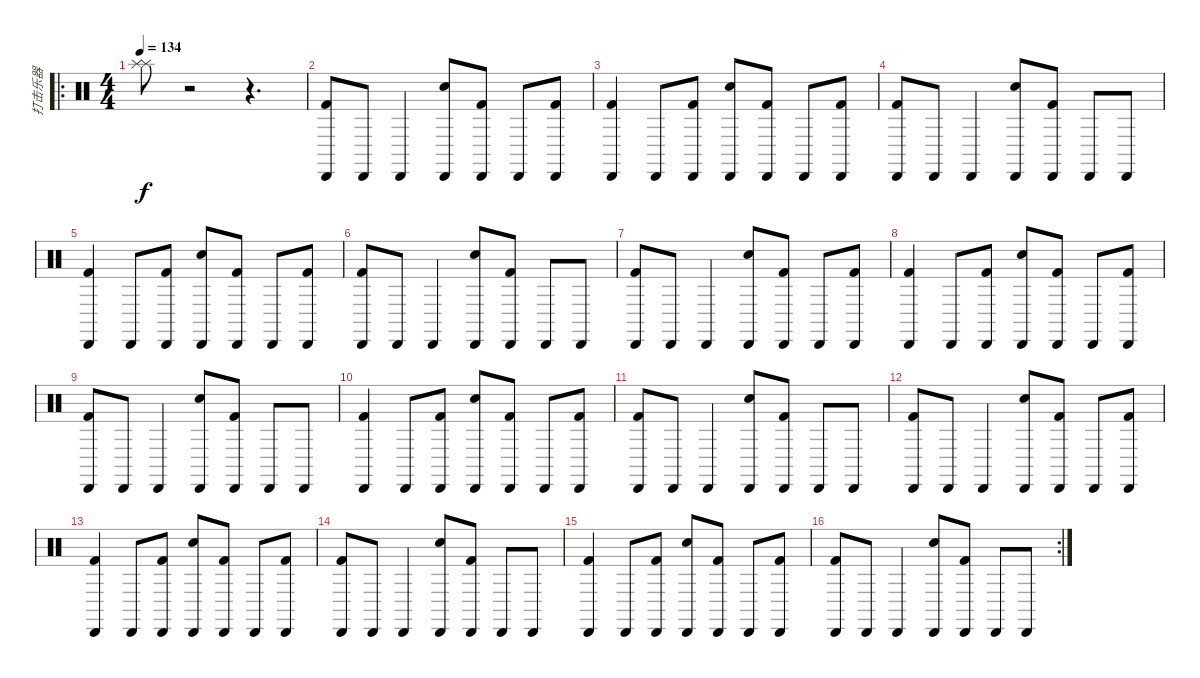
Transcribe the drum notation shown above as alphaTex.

\track ("打击乐器" "打击乐器") {instrument percussion}
\staff {score}
\articulation defaults
\ro
\ts (4 4)
\tempo 134
\clef neutral
\ks c
("Splash (hit)" "Splash (hit)").8{dy f} r.2 r.4{d} |
("Cabasa (hit)" "Kick (hit) 2").8 "Cabasa (hit)".8 "Cabasa (hit)".4 ("Snare (hit) 2" "Cabasa (hit)").8 ("Cabasa (hit)" "Kick (hit) 2").8 "Cabasa (hit)".8 ("Cabasa (hit)" "Kick (hit) 2").8 |
("Cabasa (hit)" "Kick (hit) 2").4 "Cabasa (hit)".8 ("Cabasa (hit)" "Kick (hit) 2").8 ("Snare (hit) 2" "Cabasa (hit)").8 ("Cabasa (hit)" "Kick (hit) 2").8 "Cabasa (hit)".8 ("Cabasa (hit)" "Kick (hit) 2").8 |
("Cabasa (hit)" "Kick (hit) 2").8 "Cabasa (hit)".8 "Cabasa (hit)".4 ("Snare (hit) 2" "Cabasa (hit)").8 ("Cabasa (hit)" "Kick (hit) 2").8 "Cabasa (hit)".8 "Cabasa (hit)".8 |
("Cabasa (hit)" "Kick (hit) 2").4 "Cabasa (hit)".8 ("Cabasa (hit)" "Kick (hit) 2").8 ("Snare (hit) 2" "Cabasa (hit)").8 ("Cabasa (hit)" "Kick (hit) 2").8 "Cabasa (hit)".8 ("Cabasa (hit)" "Kick (hit) 2").8 |
("Cabasa (hit)" "Kick (hit) 2").8 "Cabasa (hit)".8 "Cabasa (hit)".4 ("Snare (hit) 2" "Cabasa (hit)").8 ("Cabasa (hit)" "Kick (hit) 2").8 "Cabasa (hit)".8 "Cabasa (hit)".8 |
("Cabasa (hit)" "Kick (hit) 2").8 "Cabasa (hit)".8 "Cabasa (hit)".4 ("Snare (hit) 2" "Cabasa (hit)").8 ("Cabasa (hit)" "Kick (hit) 2").8 "Cabasa (hit)".8 ("Cabasa (hit)" "Kick (hit) 2").8 |
("Cabasa (hit)" "Kick (hit) 2").4 "Cabasa (hit)".8 ("Cabasa (hit)" "Kick (hit) 2").8 ("Snare (hit) 2" "Cabasa (hit)").8 ("Cabasa (hit)" "Kick (hit) 2").8 "Cabasa (hit)".8 ("Cabasa (hit)" "Kick (hit) 2").8 |
("Cabasa (hit)" "Kick (hit) 2").8 "Cabasa (hit)".8 "Cabasa (hit)".4 ("Snare (hit) 2" "Cabasa (hit)").8 ("Cabasa (hit)" "Kick (hit) 2").8 "Cabasa (hit)".8 "Cabasa (hit)".8 |
("Cabasa (hit)" "Kick (hit) 2").4 "Cabasa (hit)".8 ("Cabasa (hit)" "Kick (hit) 2").8 ("Snare (hit) 2" "Cabasa (hit)").8 ("Cabasa (hit)" "Kick (hit) 2").8 "Cabasa (hit)".8 ("Cabasa (hit)" "Kick (hit) 2").8 |
("Cabasa (hit)" "Kick (hit) 2").8 "Cabasa (hit)".8 "Cabasa (hit)".4 ("Snare (hit) 2" "Cabasa (hit)").8 ("Cabasa (hit)" "Kick (hit) 2").8 "Cabasa (hit)".8 "Cabasa (hit)".8 |
("Cabasa (hit)" "Kick (hit) 2").8 "Cabasa (hit)".8 "Cabasa (hit)".4 ("Snare (hit) 2" "Cabasa (hit)").8 ("Cabasa (hit)" "Kick (hit) 2").8 "Cabasa (hit)".8 ("Cabasa (hit)" "Kick (hit) 2").8 |
("Cabasa (hit)" "Kick (hit) 2").4 "Cabasa (hit)".8 ("Cabasa (hit)" "Kick (hit) 2").8 ("Snare (hit) 2" "Cabasa (hit)").8 ("Cabasa (hit)" "Kick (hit) 2").8 "Cabasa (hit)".8 ("Cabasa (hit)" "Kick (hit) 2").8 |
("Cabasa (hit)" "Kick (hit) 2").8 "Cabasa (hit)".8 "Cabasa (hit)".4 ("Snare (hit) 2" "Cabasa (hit)").8 ("Cabasa (hit)" "Kick (hit) 2").8 "Cabasa (hit)".8 "Cabasa (hit)".8 |
("Cabasa (hit)" "Kick (hit) 2").4 "Cabasa (hit)".8 ("Cabasa (hit)" "Kick (hit) 2").8 ("Snare (hit) 2" "Cabasa (hit)").8 ("Cabasa (hit)" "Kick (hit) 2").8 "Cabasa (hit)".8 ("Cabasa (hit)" "Kick (hit) 2").8 |
\rc 2
("Cabasa (hit)" "Kick (hit) 2").8 "Cabasa (hit)".8 "Cabasa (hit)".4 ("Snare (hit) 2" "Cabasa (hit)").8 ("Cabasa (hit)" "Kick (hit) 2").8 "Cabasa (hit)".8 "Cabasa (hit)".8
